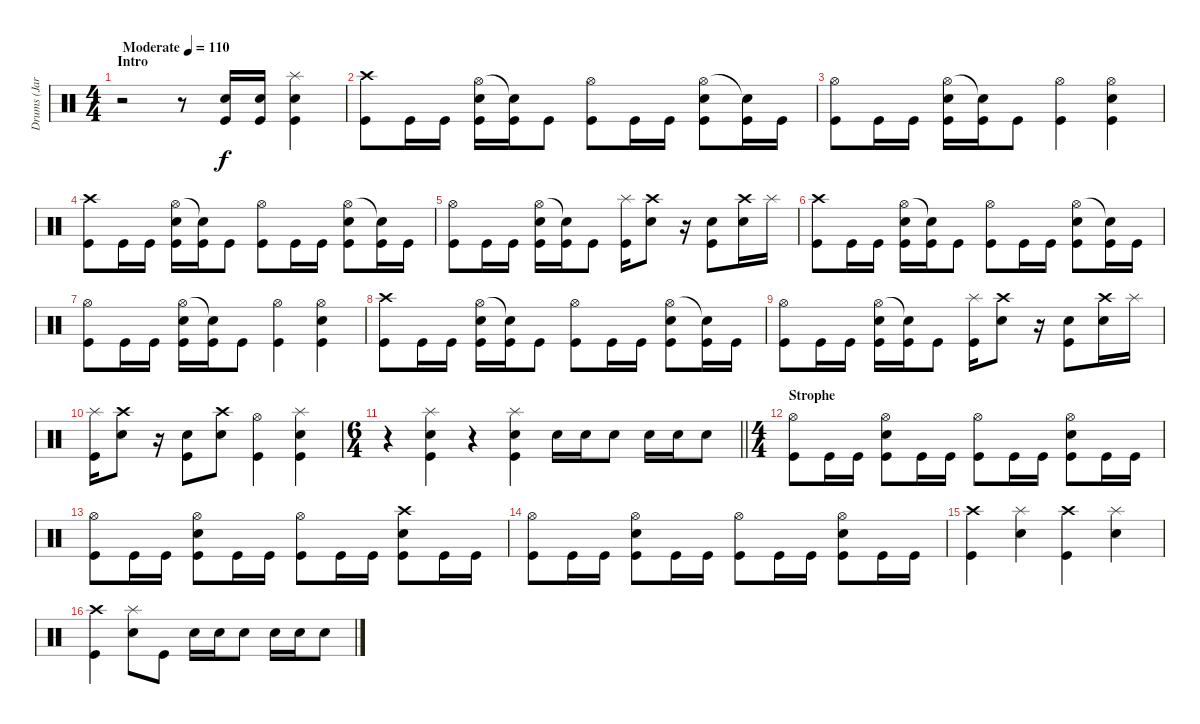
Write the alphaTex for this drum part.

\track ("Drums (Jari Kaiponen)" "Drums (Jar") {instrument percussion}
\staff {score}
\articulation defaults
\ts (4 4)
\section ("" "Intro")
\tempo (110 "Moderate")
\clef neutral
\ks c
r.2{dy f} r.8 ("Snare (hit) 2" "Kick (hit)").16 ("Snare (hit) 2" "Kick (hit)").16 ("Splash (hit)" "Snare (hit) 2" "Kick (hit)").4 |
("Crash high (hit)" "Kick (hit)").8 "Kick (hit)".16 "Kick (hit)".16 ("Kick (hit)" "Hi-Hat (open)" "Snare (hit) 2").16 ("Kick (hit)" "Snare (hit)"{t}).16 "Kick (hit)".8 ("Kick (hit)" "Hi-Hat (open)").8 "Kick (hit)".16 "Kick (hit)".16 ("Kick (hit)" "Hi-Hat (open)" "Snare (hit) 2").8 ("Kick (hit)" "Snare (hit)"{t}).16 "Kick (hit)".16 |
("Hi-Hat (open)" "Kick (hit)").8 "Kick (hit)".16 "Kick (hit)".16 ("Kick (hit)" "Hi-Hat (open)" "Snare (hit) 2").16 ("Kick (hit)" "Snare (hit)"{t}).16 "Kick (hit)".8 ("Kick (hit)" "Hi-Hat (open)").4 ("Kick (hit)" "Hi-Hat (open)" "Snare (hit) 2").4 |
("Crash high (hit)" "Kick (hit)").8 "Kick (hit)".16 "Kick (hit)".16 ("Kick (hit)" "Hi-Hat (open)" "Snare (hit) 2").16 ("Kick (hit)" "Snare (hit)"{t}).16 "Kick (hit)".8 ("Kick (hit)" "Hi-Hat (open)").8 "Kick (hit)".16 "Kick (hit)".16 ("Kick (hit)" "Hi-Hat (open)" "Snare (hit) 2").8 ("Kick (hit)" "Snare (hit)"{t}).16 "Kick (hit)".16 |
("Hi-Hat (open)" "Kick (hit)").8 "Kick (hit)".16 "Kick (hit)".16 ("Kick (hit)" "Hi-Hat (open)" "Snare (hit) 2").16 ("Kick (hit)" "Snare (hit)"{t}).16 "Kick (hit)".8 ("Splash (hit)" "Kick (hit)").16 ("Snare (hit) 2" "Crash high (hit)").8 r.16 ("Snare (hit) 2" "Kick (hit)").8 ("Snare (hit) 2" "Crash high (hit)").16 "Splash (hit)".16 |
("Crash high (hit)" "Kick (hit)").8 "Kick (hit)".16 "Kick (hit)".16 ("Kick (hit)" "Hi-Hat (open)" "Snare (hit) 2").16 ("Kick (hit)" "Snare (hit)"{t}).16 "Kick (hit)".8 ("Kick (hit)" "Hi-Hat (open)").8 "Kick (hit)".16 "Kick (hit)".16 ("Kick (hit)" "Hi-Hat (open)" "Snare (hit) 2").8 ("Kick (hit)" "Snare (hit)"{t}).16 "Kick (hit)".16 |
("Hi-Hat (open)" "Kick (hit)").8 "Kick (hit)".16 "Kick (hit)".16 ("Kick (hit)" "Hi-Hat (open)" "Snare (hit) 2").16 ("Kick (hit)" "Snare (hit)"{t}).16 "Kick (hit)".8 ("Kick (hit)" "Hi-Hat (open)").4 ("Kick (hit)" "Hi-Hat (open)" "Snare (hit) 2").4 |
("Crash high (hit)" "Kick (hit)").8 "Kick (hit)".16 "Kick (hit)".16 ("Kick (hit)" "Hi-Hat (open)" "Snare (hit) 2").16 ("Kick (hit)" "Snare (hit)"{t}).16 "Kick (hit)".8 ("Kick (hit)" "Hi-Hat (open)").8 "Kick (hit)".16 "Kick (hit)".16 ("Kick (hit)" "Hi-Hat (open)" "Snare (hit) 2").8 ("Kick (hit)" "Snare (hit)"{t}).16 "Kick (hit)".16 |
("Hi-Hat (open)" "Kick (hit)").8 "Kick (hit)".16 "Kick (hit)".16 ("Kick (hit)" "Hi-Hat (open)" "Snare (hit) 2").16 ("Kick (hit)" "Snare (hit)"{t}).16 "Kick (hit)".8 ("Splash (hit)" "Kick (hit)").16 ("Snare (hit) 2" "Crash high (hit)").8 r.16 ("Snare (hit) 2" "Kick (hit)").8 ("Snare (hit) 2" "Crash high (hit)").16 "Splash (hit)".16 |
("Splash (hit)" "Kick (hit)").16 ("Snare (hit) 2" "Crash high (hit)").8 r.16 ("Snare (hit) 2" "Kick (hit)").8 ("Snare (hit) 2" "Crash high (hit)").8 ("Hi-Hat (open)" "Kick (hit)").4 ("Splash (hit)" "Kick (hit)" "Snare (hit) 2").4 |
\ts (6 4)
\barLineRight lightlight
r.4 ("Splash (hit)" "Snare (hit) 2" "Kick (hit)").4 r.4 ("Splash (hit)" "Snare (hit) 2" "Kick (hit)").4 "Snare (hit) 2".16 "Snare (hit) 2".16 "Snare (hit) 2".8 "Snare (hit) 2".16 "Snare (hit) 2".16 "Snare (hit) 2".8 |
\ts (4 4)
\section ("" "Strophe")
("Hi-Hat (open)" "Kick (hit)").8 "Kick (hit)".16 "Kick (hit)".16 ("Hi-Hat (open)" "Snare (hit) 2" "Kick (hit)").8 "Kick (hit)".16 "Kick (hit)".16 ("Hi-Hat (open)" "Kick (hit)").8 "Kick (hit)".16 "Kick (hit)".16 ("Hi-Hat (open)" "Snare (hit) 2" "Kick (hit)").8 "Kick (hit)".16 "Kick (hit)".16 |
("Hi-Hat (open)" "Kick (hit)").8 "Kick (hit)".16 "Kick (hit)".16 ("Hi-Hat (open)" "Snare (hit) 2" "Kick (hit)").8 "Kick (hit)".16 "Kick (hit)".16 ("Hi-Hat (open)" "Kick (hit)").8 "Kick (hit)".16 "Kick (hit)".16 ("Snare (hit) 2" "Kick (hit)" "Crash high (hit)").8 "Kick (hit)".16 "Kick (hit)".16 |
("Hi-Hat (open)" "Kick (hit)").8 "Kick (hit)".16 "Kick (hit)".16 ("Hi-Hat (open)" "Snare (hit) 2" "Kick (hit)").8 "Kick (hit)".16 "Kick (hit)".16 ("Hi-Hat (open)" "Kick (hit)").8 "Kick (hit)".16 "Kick (hit)".16 ("Hi-Hat (open)" "Snare (hit) 2" "Kick (hit)").8 "Kick (hit)".16 "Kick (hit)".16 |
("Crash high (hit)" "Kick (hit)").4 ("Splash (hit)" "Snare (hit) 2").4 ("Crash high (hit)" "Kick (hit)").4 ("Splash (hit)" "Snare (hit) 2").4 |
("Crash high (hit)" "Kick (hit)").4 ("Splash (hit)" "Snare (hit) 2").8 "Kick (hit)".8 "Snare (hit) 2".16 "Snare (hit) 2".16 "Snare (hit) 2".8 "Snare (hit) 2".16 "Snare (hit) 2".16 "Snare (hit) 2".8
